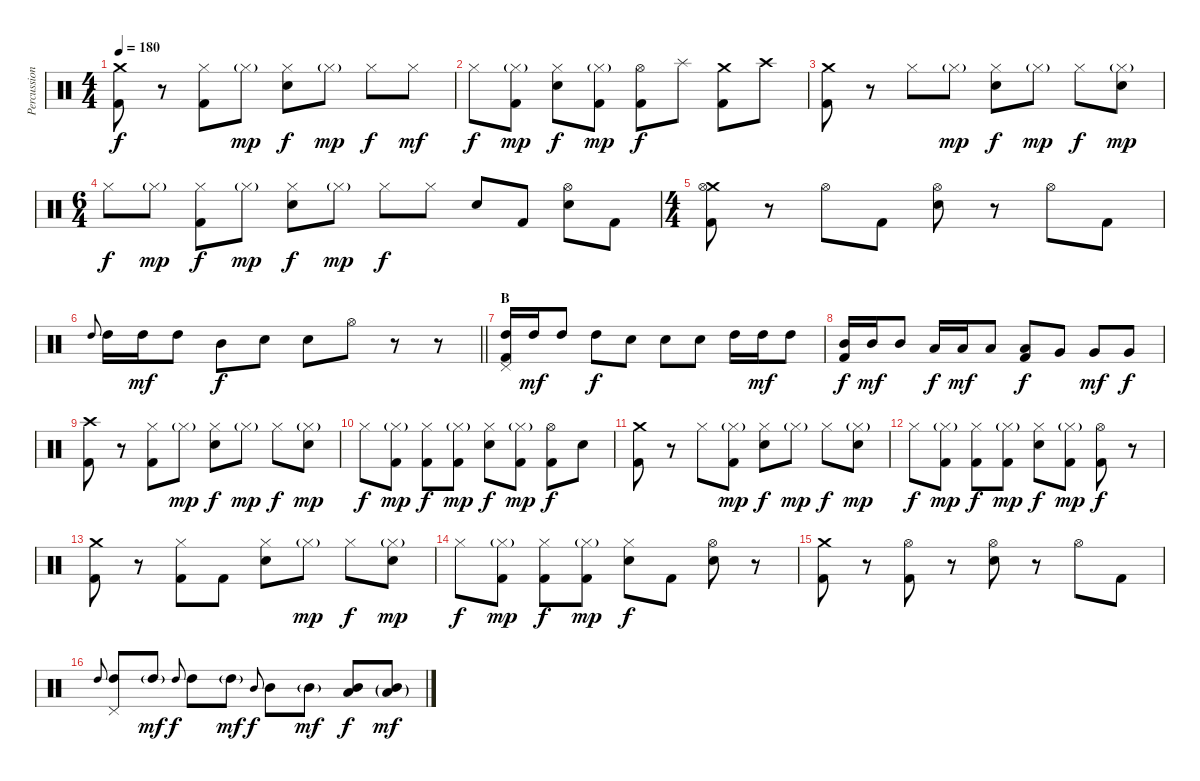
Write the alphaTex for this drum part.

\track ("Percussion" "Percussion") {instrument percussion}
\staff {score}
\articulation defaults
\ts (4 4)
\tempo 180
\clef neutral
\ks c
("Crash medium (hit)" "Kick (hit) 2").8{dy f} r.8 ("Hi-Hat (closed)" "Kick (hit) 2").8 "Hi-Hat (closed)"{g}.8{dy mp} ("Hi-Hat (closed)" "Snare (hit) 2").8{dy f} "Hi-Hat (closed)"{g}.8{dy mp} "Hi-Hat (closed)".8{dy f} "Hi-Hat (closed)".8{dy mf} |
"Hi-Hat (closed)".8{dy f} ("Hi-Hat (closed)"{g} "Kick (hit) 2").8{dy mp} ("Hi-Hat (closed)" "Snare (hit) 2").8{dy f} ("Hi-Hat (closed)"{g} "Kick (hit) 2").8{dy mp} ("Hi-Hat (open)" "Kick (hit) 2").8{dy f} "Splash (hit)".8 ("Crash medium (hit)" "Kick (hit) 2").8 "Crash high (hit)".8 |
("Crash medium (hit)" "Kick (hit) 2").8 r.8 "Hi-Hat (closed)".8 "Hi-Hat (closed)"{g}.8{dy mp} ("Hi-Hat (closed)" "Snare (hit) 2").8{dy f} "Hi-Hat (closed)"{g}.8{dy mp} "Hi-Hat (closed)".8{dy f} ("Hi-Hat (closed)"{g} "Snare (hit) 2").8{dy mp} |
\ts (6 4)
"Hi-Hat (closed)".8{dy f} "Hi-Hat (closed)"{g}.8{dy mp} ("Hi-Hat (closed)" "Kick (hit) 2").8{dy f} "Hi-Hat (closed)"{g}.8{dy mp} ("Hi-Hat (closed)" "Snare (hit) 2").8{dy f} "Hi-Hat (closed)"{g}.8{dy mp} "Hi-Hat (closed)".8{dy f} "Hi-Hat (closed)".8 "Snare (hit) 2".8 "Kick (hit) 2".8 ("Hi-Hat (open)" "Snare (hit) 2").8 "Kick (hit) 2".8 |
\ts (4 4)
("Crash medium (hit)" "Hi-Hat (open)" "Kick (hit) 2").8 r.8 "Hi-Hat (open)".8 "Kick (hit) 2".8 ("Hi-Hat (open)" "Snare (hit) 2").8 r.8 "Hi-Hat (open)".8 "Kick (hit) 2".8 |
\barLineRight lightlight "High Tom (hit)".8{gr onbeat} "High Tom (hit)".16 "High Tom (hit)".16{dy mf} "High Tom (hit)".8 "Mid Tom (hit)".8{dy f} "Snare (hit) 2".8 "Snare (hit) 2".8 "Hi-Hat (open)".8
r.8 r.8 |
\section ("" "B")
("Pedal Hi-Hat (hit)" "High Tom (hit)" "Kick (hit) 2").16 "High Tom (hit)".16{dy mf} "High Tom (hit)".8 "High Tom (hit)".8{dy f} "Snare (hit) 2".8 "Snare (hit) 2".8 "Snare (hit) 2".8 "High Tom (hit)".16 "High Tom (hit)".16{dy mf} "High Tom (hit)".8 |
("Mid Tom (hit)" "Kick (hit) 2").16{dy f} "Mid Tom (hit)".16{dy mf} "Mid Tom (hit)".8 "Low Tom (hit)".16{dy f} "Low Tom (hit)".16{dy mf} "Low Tom (hit)".8 ("Low Tom (hit)" "Kick (hit) 2").8{dy f} "Very Low Tom (hit)".8 "Very Low Tom (hit)".8{dy mf} "Very Low Tom (hit)".8{dy f} |
("Crash high (hit)" "Kick (hit) 2").8 r.8 ("Hi-Hat (closed)" "Kick (hit) 2").8 "Hi-Hat (closed)"{g}.8{dy mp} ("Hi-Hat (closed)" "Snare (hit) 2").8{dy f} "Hi-Hat (closed)"{g}.8{dy mp} "Hi-Hat (closed)".8{dy f} ("Hi-Hat (closed)"{g} "Snare (hit) 2").8{dy mp} |
"Hi-Hat (closed)".8{dy f} ("Hi-Hat (closed)"{g} "Kick (hit) 2").8{dy mp} ("Hi-Hat (closed)" "Kick (hit) 2").8{dy f} ("Hi-Hat (closed)"{g} "Kick (hit) 2").8{dy mp} ("Hi-Hat (closed)" "Snare (hit) 2").8{dy f} ("Hi-Hat (closed)"{g} "Kick (hit) 2").8{dy mp} ("Hi-Hat (open)" "Kick (hit) 2").8{dy f} "Snare (hit) 2".8 |
("Crash medium (hit)" "Kick (hit) 2").8 r.8 "Hi-Hat (closed)".8 ("Hi-Hat (closed)"{g} "Kick (hit) 2").8{dy mp} ("Hi-Hat (closed)" "Snare (hit) 2").8{dy f} "Hi-Hat (closed)"{g}.8{dy mp} "Hi-Hat (closed)".8{dy f} ("Hi-Hat (closed)"{g} "Snare (hit) 2").8{dy mp} |
"Hi-Hat (closed)".8{dy f} ("Hi-Hat (closed)"{g} "Kick (hit) 2").8{dy mp} ("Hi-Hat (closed)" "Kick (hit) 2").8{dy f} ("Hi-Hat (closed)"{g} "Kick (hit) 2").8{dy mp} ("Hi-Hat (closed)" "Snare (hit) 2").8{dy f} ("Hi-Hat (closed)"{g} "Kick (hit) 2").8{dy mp} ("Hi-Hat (open)" "Kick (hit) 2").8{dy f} r.8 |
("Crash medium (hit)" "Kick (hit) 2").8 r.8 ("Hi-Hat (closed)" "Kick (hit) 2").8 "Kick (hit) 2".8 ("Hi-Hat (closed)" "Snare (hit) 2").8 "Hi-Hat (closed)"{g}.8{dy mp} "Hi-Hat (closed)".8{dy f} ("Hi-Hat (closed)"{g} "Snare (hit) 2").8{dy mp} |
"Hi-Hat (closed)".8{dy f} ("Hi-Hat (closed)"{g} "Kick (hit) 2").8{dy mp} ("Hi-Hat (closed)" "Kick (hit) 2").8{dy f} ("Hi-Hat (closed)"{g} "Kick (hit) 2").8{dy mp} ("Hi-Hat (closed)" "Snare (hit) 2").8{dy f} "Kick (hit) 2".8 ("Hi-Hat (open)" "Snare (hit) 2").8 r.8 |
("Crash medium (hit)" "Kick (hit) 2").8 r.8 ("Hi-Hat (open)" "Kick (hit) 2").8 r.8 ("Hi-Hat (open)" "Snare (hit) 2").8 r.8 "Hi-Hat (open)".8 "Kick (hit) 2".8 |
"High Tom (hit)".8{gr onbeat} ("Pedal Hi-Hat (hit)" "High Tom (hit)").8 "High Tom (hit)"{g}.8{dy mf} "High Tom (hit)".8{gr onbeat dy f} "High Tom (hit)".8 "High Tom (hit)"{g}.8{dy mf} "Mid Tom (hit)".8{gr onbeat dy f} "Mid Tom (hit)".8 "Mid Tom (hit)"{g}.8{dy mf} ("Mid Tom (hit)" "Low Tom (hit)").8{bu 60 dy f} ("Mid Tom (hit)"{g} "Low Tom (hit)"{g}).8{dy mf}
